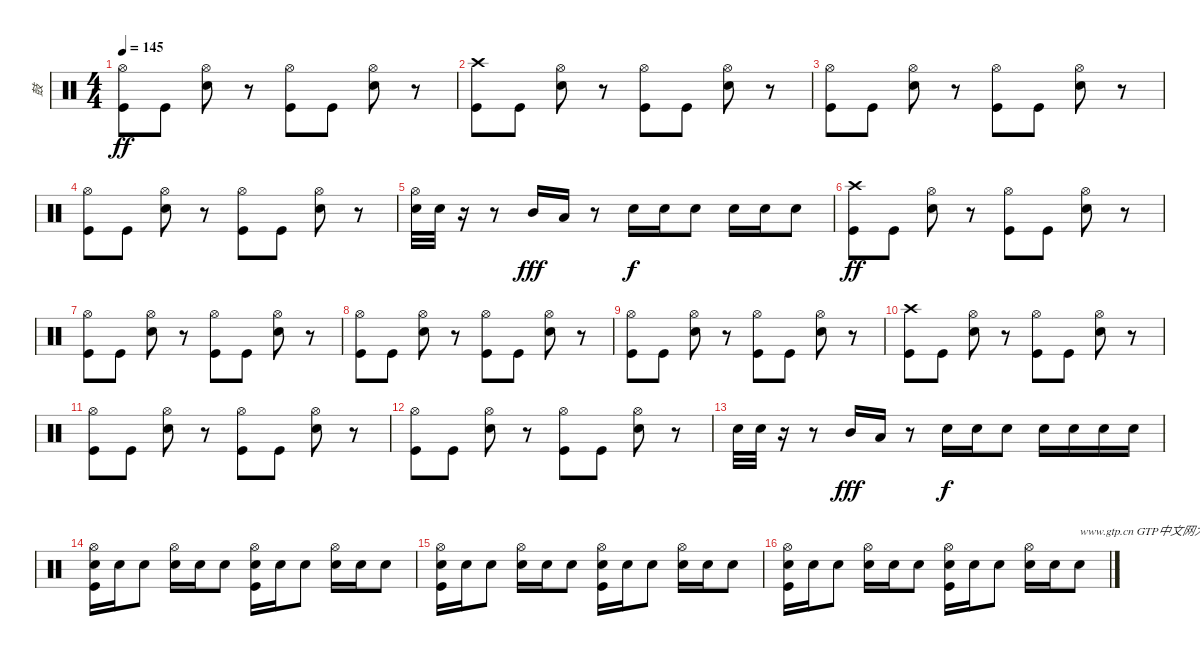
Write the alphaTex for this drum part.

\track ("鼓" "鼓") {instrument percussion}
\staff {score}
\articulation defaults
\ts (4 4)
\tempo 145
\clef neutral
\ks c
("Hi-Hat (open)" "Kick (hit)").8{dy ff} "Kick (hit)".8 ("Hi-Hat (open)" "Snare (hit) 2").8 r.8 ("Hi-Hat (open)" "Kick (hit)").8 "Kick (hit)".8 ("Hi-Hat (open)" "Snare (hit) 2").8 r.8 |
("Crash high (hit)" "Kick (hit)").8 "Kick (hit)".8 ("Hi-Hat (open)" "Snare (hit) 2").8 r.8 ("Hi-Hat (open)" "Kick (hit)").8 "Kick (hit)".8 ("Hi-Hat (open)" "Snare (hit) 2").8 r.8 |
("Hi-Hat (open)" "Kick (hit)").8 "Kick (hit)".8 ("Hi-Hat (open)" "Snare (hit) 2").8 r.8 ("Hi-Hat (open)" "Kick (hit)").8 "Kick (hit)".8 ("Hi-Hat (open)" "Snare (hit) 2").8 r.8 |
("Hi-Hat (open)" "Kick (hit)").8 "Kick (hit)".8 ("Hi-Hat (open)" "Snare (hit) 2").8 r.8 ("Hi-Hat (open)" "Kick (hit)").8 "Kick (hit)".8 ("Hi-Hat (open)" "Snare (hit) 2").8 r.8 |
("Hi-Hat (open)" "Snare (hit) 2").32 "Snare (hit) 2".32 r.16 r.8 "Mid Tom (hit)".16{dy fff} "Low Tom (hit)".16 r.8 "Snare (hit) 2".16{dy f} "Snare (hit) 2".16 "Snare (hit) 2".8 "Snare (hit) 2".16 "Snare (hit) 2".16 "Snare (hit) 2".8 |
("Crash high (hit)" "Kick (hit)").8{dy ff} "Kick (hit)".8 ("Hi-Hat (open)" "Snare (hit) 2").8 r.8 ("Hi-Hat (open)" "Kick (hit)").8 "Kick (hit)".8 ("Hi-Hat (open)" "Snare (hit) 2").8 r.8 |
("Hi-Hat (open)" "Kick (hit)").8 "Kick (hit)".8 ("Hi-Hat (open)" "Snare (hit) 2").8 r.8 ("Hi-Hat (open)" "Kick (hit)").8 "Kick (hit)".8 ("Hi-Hat (open)" "Snare (hit) 2").8 r.8 |
("Hi-Hat (open)" "Kick (hit)").8 "Kick (hit)".8 ("Hi-Hat (open)" "Snare (hit) 2").8 r.8 ("Hi-Hat (open)" "Kick (hit)").8 "Kick (hit)".8 ("Hi-Hat (open)" "Snare (hit) 2").8 r.8 |
("Hi-Hat (open)" "Kick (hit)").8 "Kick (hit)".8 ("Hi-Hat (open)" "Snare (hit) 2").8 r.8 ("Hi-Hat (open)" "Kick (hit)").8 "Kick (hit)".8 ("Hi-Hat (open)" "Snare (hit) 2").8 r.8 |
("Crash high (hit)" "Kick (hit)").8 "Kick (hit)".8 ("Hi-Hat (open)" "Snare (hit) 2").8 r.8 ("Hi-Hat (open)" "Kick (hit)").8 "Kick (hit)".8 ("Hi-Hat (open)" "Snare (hit) 2").8 r.8 |
("Hi-Hat (open)" "Kick (hit)").8 "Kick (hit)".8 ("Hi-Hat (open)" "Snare (hit) 2").8 r.8 ("Hi-Hat (open)" "Kick (hit)").8 "Kick (hit)".8 ("Hi-Hat (open)" "Snare (hit) 2").8 r.8 |
("Hi-Hat (open)" "Kick (hit)").8 "Kick (hit)".8 ("Hi-Hat (open)" "Snare (hit) 2").8 r.8 ("Hi-Hat (open)" "Kick (hit)").8 "Kick (hit)".8 ("Hi-Hat (open)" "Snare (hit) 2").8 r.8 |
"Snare (hit) 2".32 "Snare (hit) 2".32 r.16 r.8 "Mid Tom (hit)".16{dy fff} "Low Tom (hit)".16 r.8 "Snare (hit) 2".16{dy f} "Snare (hit) 2".16 "Snare (hit) 2".8 "Snare (hit) 2".16 "Snare (hit) 2".16 "Snare (hit) 2".16 "Snare (hit) 2".16 |
("Hi-Hat (open)" "Snare (hit) 2" "Kick (hit)").16 "Snare (hit) 2".16 "Snare (hit) 2".8 ("Hi-Hat (open)" "Snare (hit) 2").16 "Snare (hit) 2".16 "Snare (hit) 2".8 ("Hi-Hat (open)" "Snare (hit) 2" "Kick (hit)").16 "Snare (hit) 2".16 "Snare (hit) 2".8 ("Hi-Hat (open)" "Snare (hit) 2").16 "Snare (hit) 2".16 "Snare (hit) 2".8 |
("Hi-Hat (open)" "Snare (hit) 2" "Kick (hit)").16 "Snare (hit) 2".16 "Snare (hit) 2".8 ("Hi-Hat (open)" "Snare (hit) 2").16 "Snare (hit) 2".16 "Snare (hit) 2".8 ("Hi-Hat (open)" "Snare (hit) 2" "Kick (hit)").16 "Snare (hit) 2".16 "Snare (hit) 2".8 ("Hi-Hat (open)" "Snare (hit) 2").16 "Snare (hit) 2".16 "Snare (hit) 2".8 |
("Hi-Hat (open)" "Snare (hit) 2" "Kick (hit)").16 "Snare (hit) 2".16 "Snare (hit) 2".8 ("Hi-Hat (open)" "Snare (hit) 2").16 "Snare (hit) 2".16 "Snare (hit) 2".8 ("Hi-Hat (open)" "Snare (hit) 2" "Kick (hit)").16 "Snare (hit) 2".16 "Snare (hit) 2".8 ("Hi-Hat (open)" "Snare (hit) 2").16 "Snare (hit) 2".16 "Snare (hit) 2".8{txt "www.gtp.cn GTP中文网为您提供优秀的谱子"}
